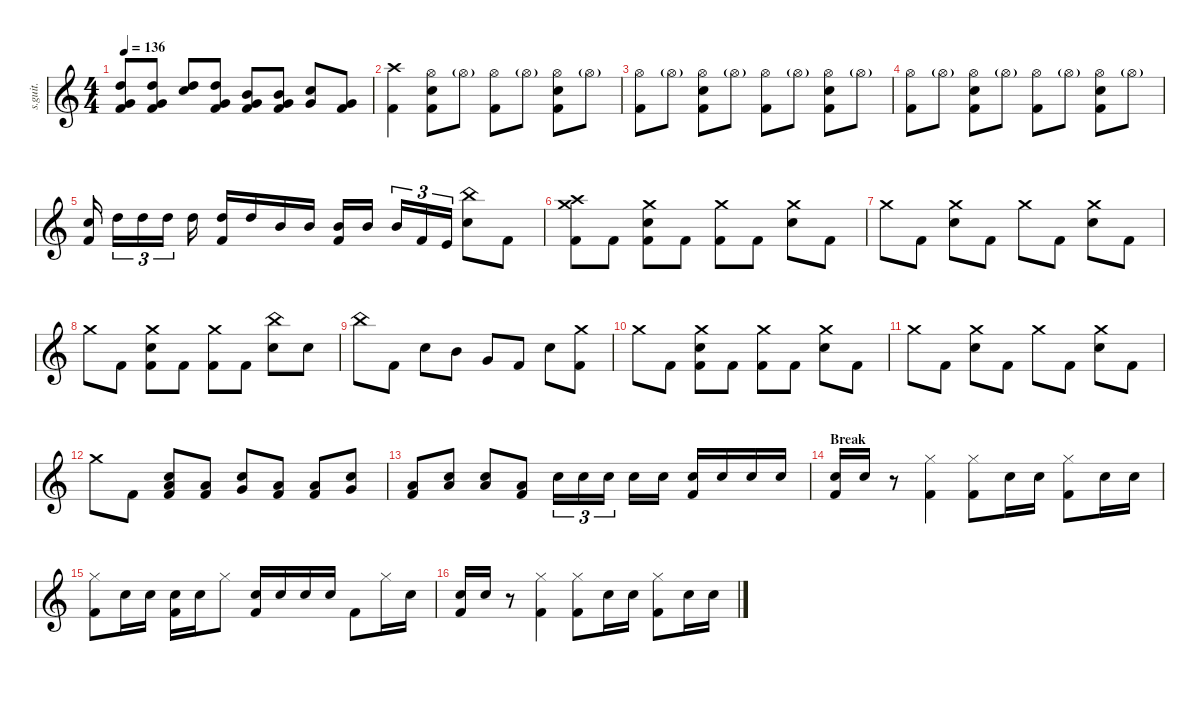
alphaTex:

\defaultSystemsLayout 4
\hideDynamics
\bracketExtendMode nobrackets
\track ("Joey Jordison" "s.guit.") {instrument percussion}
\staff {score}
\articulation defaults
\ts (4 4)
\tempo 136
\clef g2
\ks c
("Kick (hit) 2" "High Tom (hit)" "Very Low Tom (hit)").8{lyrics (0 "") lyrics (1 "") lyrics (2 "") lyrics (3 "") lyrics (4 "") dy fff} ("Kick (hit) 2" "High Tom (hit)" "Very Low Tom (hit)").8{lyrics (0 "") lyrics (1 "") lyrics (2 "") lyrics (3 "") lyrics (4 "")} ("Snare (hit) 2" "High Tom (hit)").8{lyrics (0 "") lyrics (1 "") lyrics (2 "") lyrics (3 "") lyrics (4 "")} ("Kick (hit) 2" "High Tom (hit)" "Very Low Tom (hit)").8{lyrics (0 "") lyrics (1 "") lyrics (2 "") lyrics (3 "") lyrics (4 "")} ("Kick (hit) 2" "Mid Tom (hit)" "Very Low Tom (hit)").8{lyrics (0 "") lyrics (1 "") lyrics (2 "") lyrics (3 "") lyrics (4 "")} ("Kick (hit) 2" "Mid Tom (hit)" "Very Low Tom (hit)").8{lyrics (0 "") lyrics (1 "") lyrics (2 "") lyrics (3 "") lyrics (4 "")} ("Snare (hit) 2" "Very Low Tom (hit)").8{lyrics (0 "") lyrics (1 "") lyrics (2 "") lyrics (3 "") lyrics (4 "")} ("Kick (hit) 2" "Very Low Tom (hit)").8{lyrics (0 "") lyrics (1 "") lyrics (2 "") lyrics (3 "") lyrics (4 "")} |
("Crash high (hit)" "Kick (hit) 2").4{lyrics (0 "") lyrics (1 "") lyrics (2 "") lyrics (3 "") lyrics (4 "")} ("Hi-Hat (open)" "Kick (hit) 2" "Snare (hit) 2").8{lyrics (0 "") lyrics (1 "") lyrics (2 "") lyrics (3 "") lyrics (4 "")} "Hi-Hat (open)"{g}.8{lyrics (0 "") lyrics (1 "") lyrics (2 "") lyrics (3 "") lyrics (4 "")} ("Hi-Hat (open)" "Kick (hit) 2").8{lyrics (0 "") lyrics (1 "") lyrics (2 "") lyrics (3 "") lyrics (4 "")} "Hi-Hat (open)"{g}.8{lyrics (0 "") lyrics (1 "") lyrics (2 "") lyrics (3 "") lyrics (4 "")} ("Hi-Hat (open)" "Kick (hit) 2" "Snare (hit) 2").8{lyrics (0 "") lyrics (1 "") lyrics (2 "") lyrics (3 "") lyrics (4 "")} "Hi-Hat (open)"{g}.8{lyrics (0 "") lyrics (1 "") lyrics (2 "") lyrics (3 "") lyrics (4 "")} |
("Hi-Hat (open)" "Kick (hit) 2").8{lyrics (0 "") lyrics (1 "") lyrics (2 "") lyrics (3 "") lyrics (4 "")} "Hi-Hat (open)"{g}.8{lyrics (0 "") lyrics (1 "") lyrics (2 "") lyrics (3 "") lyrics (4 "")} ("Hi-Hat (open)" "Kick (hit) 2" "Snare (hit) 2").8{lyrics (0 "") lyrics (1 "") lyrics (2 "") lyrics (3 "") lyrics (4 "")} "Hi-Hat (open)"{g}.8{lyrics (0 "") lyrics (1 "") lyrics (2 "") lyrics (3 "") lyrics (4 "")} ("Hi-Hat (open)" "Kick (hit) 2").8{lyrics (0 "") lyrics (1 "") lyrics (2 "") lyrics (3 "") lyrics (4 "")} "Hi-Hat (open)"{g}.8{lyrics (0 "") lyrics (1 "") lyrics (2 "") lyrics (3 "") lyrics (4 "")} ("Hi-Hat (open)" "Kick (hit) 2" "Snare (hit) 2").8{lyrics (0 "") lyrics (1 "") lyrics (2 "") lyrics (3 "") lyrics (4 "")} "Hi-Hat (open)"{g}.8{lyrics (0 "") lyrics (1 "") lyrics (2 "") lyrics (3 "") lyrics (4 "")} |
("Hi-Hat (open)" "Kick (hit) 2").8{lyrics (0 "") lyrics (1 "") lyrics (2 "") lyrics (3 "") lyrics (4 "")} "Hi-Hat (open)"{g}.8{lyrics (0 "") lyrics (1 "") lyrics (2 "") lyrics (3 "") lyrics (4 "")} ("Hi-Hat (open)" "Kick (hit) 2" "Snare (hit) 2").8{lyrics (0 "") lyrics (1 "") lyrics (2 "") lyrics (3 "") lyrics (4 "")} "Hi-Hat (open)"{g}.8{lyrics (0 "") lyrics (1 "") lyrics (2 "") lyrics (3 "") lyrics (4 "")} ("Hi-Hat (open)" "Kick (hit) 2").8{lyrics (0 "") lyrics (1 "") lyrics (2 "") lyrics (3 "") lyrics (4 "")} "Hi-Hat (open)"{g}.8{lyrics (0 "") lyrics (1 "") lyrics (2 "") lyrics (3 "") lyrics (4 "")} ("Hi-Hat (open)" "Kick (hit) 2" "Snare (hit) 2").8{lyrics (0 "") lyrics (1 "") lyrics (2 "") lyrics (3 "") lyrics (4 "")} "Hi-Hat (open)"{g}.8{lyrics (0 "") lyrics (1 "") lyrics (2 "") lyrics (3 "") lyrics (4 "")} |
("Snare (hit) 2" "Kick (hit) 2").16{lyrics (0 "") lyrics (1 "") lyrics (2 "") lyrics (3 "") lyrics (4 "")} "High Tom (hit)".16{tu (3 2) lyrics (0 "") lyrics (1 "") lyrics (2 "") lyrics (3 "") lyrics (4 "")} "High Tom (hit)".16{tu (3 2) lyrics (0 "") lyrics (1 "") lyrics (2 "") lyrics (3 "") lyrics (4 "")} "High Tom (hit)".16{tu (3 2) lyrics (0 "") lyrics (1 "") lyrics (2 "") lyrics (3 "") lyrics (4 "")} "High Tom (hit)".16{lyrics (0 "") lyrics (1 "") lyrics (2 "") lyrics (3 "") lyrics (4 "")} ("Kick (hit) 2" "High Tom (hit)").16{lyrics (0 "") lyrics (1 "") lyrics (2 "") lyrics (3 "") lyrics (4 "")} "High Tom (hit)".16{lyrics (0 "") lyrics (1 "") lyrics (2 "") lyrics (3 "") lyrics (4 "")} "Mid Tom (hit)".16{lyrics (0 "") lyrics (1 "") lyrics (2 "") lyrics (3 "") lyrics (4 "")} "Mid Tom (hit)".16{lyrics (0 "") lyrics (1 "") lyrics (2 "") lyrics (3 "") lyrics (4 "")} ("Kick (hit) 2" "Mid Tom (hit)").16{lyrics (0 "") lyrics (1 "") lyrics (2 "") lyrics (3 "") lyrics (4 "")} "Mid Tom (hit)".16{lyrics (0 "") lyrics (1 "") lyrics (2 "") lyrics (3 "") lyrics (4 "")} "Mid Tom (hit)".16{tu (3 2) lyrics (0 "") lyrics (1 "") lyrics (2 "") lyrics (3 "") lyrics (4 "")} "Kick (hit) 2".16{tu (3 2) lyrics (0 "") lyrics (1 "") lyrics (2 "") lyrics (3 "") lyrics (4 "")} "Kick (hit)".16{tu (3 2) lyrics (0 "") lyrics (1 "") lyrics (2 "") lyrics (3 "") lyrics (4 "")} ("Snare (hit) 2" "China (hit)").8{lyrics (0 "") lyrics (1 "") lyrics (2 "") lyrics (3 "") lyrics (4 "")} "Kick (hit) 2".8{lyrics (0 "") lyrics (1 "") lyrics (2 "") lyrics (3 "") lyrics (4 "")} |
("Kick (hit) 2" "Crash high (hit)" "Crash medium (hit)").8{lyrics (0 "") lyrics (1 "") lyrics (2 "") lyrics (3 "") lyrics (4 "")} "Kick (hit) 2".8{lyrics (0 "") lyrics (1 "") lyrics (2 "") lyrics (3 "") lyrics (4 "")} ("Snare (hit) 2" "Kick (hit) 2" "Crash medium (hit)").8{lyrics (0 "") lyrics (1 "") lyrics (2 "") lyrics (3 "") lyrics (4 "")} "Kick (hit) 2".8{lyrics (0 "") lyrics (1 "") lyrics (2 "") lyrics (3 "") lyrics (4 "")} ("Kick (hit) 2" "Crash medium (hit)").8{lyrics (0 "") lyrics (1 "") lyrics (2 "") lyrics (3 "") lyrics (4 "")} "Kick (hit) 2".8{lyrics (0 "") lyrics (1 "") lyrics (2 "") lyrics (3 "") lyrics (4 "")} ("Snare (hit) 2" "Crash medium (hit)").8{lyrics (0 "") lyrics (1 "") lyrics (2 "") lyrics (3 "") lyrics (4 "")} "Kick (hit) 2".8{lyrics (0 "") lyrics (1 "") lyrics (2 "") lyrics (3 "") lyrics (4 "")} |
"Crash medium (hit)".8{lyrics (0 "") lyrics (1 "") lyrics (2 "") lyrics (3 "") lyrics (4 "")} "Kick (hit) 2".8{lyrics (0 "") lyrics (1 "") lyrics (2 "") lyrics (3 "") lyrics (4 "")} ("Snare (hit) 2" "Crash medium (hit)").8{lyrics (0 "") lyrics (1 "") lyrics (2 "") lyrics (3 "") lyrics (4 "")} "Kick (hit) 2".8{lyrics (0 "") lyrics (1 "") lyrics (2 "") lyrics (3 "") lyrics (4 "")} "Crash medium (hit)".8{lyrics (0 "") lyrics (1 "") lyrics (2 "") lyrics (3 "") lyrics (4 "")} "Kick (hit) 2".8{lyrics (0 "") lyrics (1 "") lyrics (2 "") lyrics (3 "") lyrics (4 "")} ("Snare (hit) 2" "Crash medium (hit)").8{lyrics (0 "") lyrics (1 "") lyrics (2 "") lyrics (3 "") lyrics (4 "")} "Kick (hit) 2".8{lyrics (0 "") lyrics (1 "") lyrics (2 "") lyrics (3 "") lyrics (4 "")} |
"Crash medium (hit)".8{lyrics (0 "") lyrics (1 "") lyrics (2 "") lyrics (3 "") lyrics (4 "")} "Kick (hit) 2".8{lyrics (0 "") lyrics (1 "") lyrics (2 "") lyrics (3 "") lyrics (4 "")} ("Snare (hit) 2" "Kick (hit) 2" "Crash medium (hit)").8{lyrics (0 "") lyrics (1 "") lyrics (2 "") lyrics (3 "") lyrics (4 "")} "Kick (hit) 2".8{lyrics (0 "") lyrics (1 "") lyrics (2 "") lyrics (3 "") lyrics (4 "")} ("Kick (hit) 2" "Crash medium (hit)").8{lyrics (0 "") lyrics (1 "") lyrics (2 "") lyrics (3 "") lyrics (4 "")} "Kick (hit) 2".8{lyrics (0 "") lyrics (1 "") lyrics (2 "") lyrics (3 "") lyrics (4 "")} ("Snare (hit) 2" "China (hit)").8{lyrics (0 "") lyrics (1 "") lyrics (2 "") lyrics (3 "") lyrics (4 "")} "Snare (hit) 2".8{lyrics (0 "") lyrics (1 "") lyrics (2 "") lyrics (3 "") lyrics (4 "")} |
"China (hit)".8{lyrics (0 "") lyrics (1 "") lyrics (2 "") lyrics (3 "") lyrics (4 "")} "Kick (hit) 2".8{lyrics (0 "") lyrics (1 "") lyrics (2 "") lyrics (3 "") lyrics (4 "")} "Snare (hit) 2".8{lyrics (0 "") lyrics (1 "") lyrics (2 "") lyrics (3 "") lyrics (4 "")} "Mid Tom (hit)".8{lyrics (0 "") lyrics (1 "") lyrics (2 "") lyrics (3 "") lyrics (4 "")} "Very Low Tom (hit)".8{lyrics (0 "") lyrics (1 "") lyrics (2 "") lyrics (3 "") lyrics (4 "")} "Kick (hit) 2".8{lyrics (0 "") lyrics (1 "") lyrics (2 "") lyrics (3 "") lyrics (4 "")} "Snare (hit) 2".8{lyrics (0 "") lyrics (1 "") lyrics (2 "") lyrics (3 "") lyrics (4 "")} ("Kick (hit) 2" "Crash medium (hit)").8{lyrics (0 "") lyrics (1 "") lyrics (2 "") lyrics (3 "") lyrics (4 "")} |
"Crash medium (hit)".8{lyrics (0 "") lyrics (1 "") lyrics (2 "") lyrics (3 "") lyrics (4 "")} "Kick (hit) 2".8{lyrics (0 "") lyrics (1 "") lyrics (2 "") lyrics (3 "") lyrics (4 "")} ("Snare (hit) 2" "Kick (hit) 2" "Crash medium (hit)").8{lyrics (0 "") lyrics (1 "") lyrics (2 "") lyrics (3 "") lyrics (4 "")} "Kick (hit) 2".8{lyrics (0 "") lyrics (1 "") lyrics (2 "") lyrics (3 "") lyrics (4 "")} ("Kick (hit) 2" "Crash medium (hit)").8{lyrics (0 "") lyrics (1 "") lyrics (2 "") lyrics (3 "") lyrics (4 "")} "Kick (hit) 2".8{lyrics (0 "") lyrics (1 "") lyrics (2 "") lyrics (3 "") lyrics (4 "")} ("Snare (hit) 2" "Crash medium (hit)").8{lyrics (0 "") lyrics (1 "") lyrics (2 "") lyrics (3 "") lyrics (4 "")} "Kick (hit) 2".8{lyrics (0 "") lyrics (1 "") lyrics (2 "") lyrics (3 "") lyrics (4 "")} |
"Crash medium (hit)".8{lyrics (0 "") lyrics (1 "") lyrics (2 "") lyrics (3 "") lyrics (4 "")} "Kick (hit) 2".8{lyrics (0 "") lyrics (1 "") lyrics (2 "") lyrics (3 "") lyrics (4 "")} ("Snare (hit) 2" "Crash medium (hit)").8{lyrics (0 "") lyrics (1 "") lyrics (2 "") lyrics (3 "") lyrics (4 "")} "Kick (hit) 2".8{lyrics (0 "") lyrics (1 "") lyrics (2 "") lyrics (3 "") lyrics (4 "")} "Crash medium (hit)".8{lyrics (0 "") lyrics (1 "") lyrics (2 "") lyrics (3 "") lyrics (4 "")} "Kick (hit) 2".8{lyrics (0 "") lyrics (1 "") lyrics (2 "") lyrics (3 "") lyrics (4 "")} ("Snare (hit) 2" "Crash medium (hit)").8{lyrics (0 "") lyrics (1 "") lyrics (2 "") lyrics (3 "") lyrics (4 "")} "Kick (hit) 2".8{lyrics (0 "") lyrics (1 "") lyrics (2 "") lyrics (3 "") lyrics (4 "")} |
"Crash medium (hit)".8{lyrics (0 "") lyrics (1 "") lyrics (2 "") lyrics (3 "") lyrics (4 "")} "Kick (hit) 2".8{lyrics (0 "") lyrics (1 "") lyrics (2 "") lyrics (3 "") lyrics (4 "")} ("Snare (hit) 2" "Kick (hit) 2" "Low Tom (hit)").8{lyrics (0 "") lyrics (1 "") lyrics (2 "") lyrics (3 "") lyrics (4 "")} ("Kick (hit) 2" "Low Tom (hit)").8{lyrics (0 "") lyrics (1 "") lyrics (2 "") lyrics (3 "") lyrics (4 "")} ("Very Low Tom (hit)" "Snare (hit) 2").8{lyrics (0 "") lyrics (1 "") lyrics (2 "") lyrics (3 "") lyrics (4 "")} ("Kick (hit) 2" "Low Tom (hit)").8{lyrics (0 "") lyrics (1 "") lyrics (2 "") lyrics (3 "") lyrics (4 "")} ("Kick (hit) 2" "Low Tom (hit)").8{lyrics (0 "") lyrics (1 "") lyrics (2 "") lyrics (3 "") lyrics (4 "")} ("Very Low Tom (hit)" "Snare (hit) 2").8{lyrics (0 "") lyrics (1 "") lyrics (2 "") lyrics (3 "") lyrics (4 "")} |
("Kick (hit) 2" "Low Tom (hit)").8{lyrics (0 "") lyrics (1 "") lyrics (2 "") lyrics (3 "") lyrics (4 "")} ("Snare (hit) 2" "Low Tom (hit)").8{lyrics (0 "") lyrics (1 "") lyrics (2 "") lyrics (3 "") lyrics (4 "")} ("Snare (hit) 2" "Low Tom (hit)").8{lyrics (0 "") lyrics (1 "") lyrics (2 "") lyrics (3 "") lyrics (4 "")} ("Kick (hit) 2" "Low Tom (hit)").8{lyrics (0 "") lyrics (1 "") lyrics (2 "") lyrics (3 "") lyrics (4 "")} "Snare (hit) 2".16{tu (3 2) lyrics (0 "") lyrics (1 "") lyrics (2 "") lyrics (3 "") lyrics (4 "")} "Snare (hit) 2".16{tu (3 2) lyrics (0 "") lyrics (1 "") lyrics (2 "") lyrics (3 "") lyrics (4 "")} "Snare (hit) 2".16{tu (3 2) lyrics (0 "") lyrics (1 "") lyrics (2 "") lyrics (3 "") lyrics (4 "")} "Snare (hit) 2".16{lyrics (0 "") lyrics (1 "") lyrics (2 "") lyrics (3 "") lyrics (4 "")} "Snare (hit) 2".16{lyrics (0 "") lyrics (1 "") lyrics (2 "") lyrics (3 "") lyrics (4 "")} ("Snare (hit) 2" "Kick (hit) 2").16{lyrics (0 "") lyrics (1 "") lyrics (2 "") lyrics (3 "") lyrics (4 "")} "Snare (hit) 2".16{lyrics (0 "") lyrics (1 "") lyrics (2 "") lyrics (3 "") lyrics (4 "")} "Snare (hit) 2".16{lyrics (0 "") lyrics (1 "") lyrics (2 "") lyrics (3 "") lyrics (4 "")} "Snare (hit) 2".16{lyrics (0 "") lyrics (1 "") lyrics (2 "") lyrics (3 "") lyrics (4 "")} |
\section ("" "Break")
("Snare (hit) 2" "Kick (hit) 2").16{lyrics (0 "") lyrics (1 "") lyrics (2 "") lyrics (3 "") lyrics (4 "")} "Snare (hit) 2".16{lyrics (0 "") lyrics (1 "") lyrics (2 "") lyrics (3 "") lyrics (4 "")} r.8 ("Hi-Hat (closed)" "Kick (hit) 2").4{lyrics (0 "") lyrics (1 "") lyrics (2 "") lyrics (3 "") lyrics (4 "")} ("Kick (hit) 2" "Hi-Hat (closed)").8{lyrics (0 "") lyrics (1 "") lyrics (2 "") lyrics (3 "") lyrics (4 "")} "Snare (hit) 2".16{lyrics (0 "") lyrics (1 "") lyrics (2 "") lyrics (3 "") lyrics (4 "")} "Snare (hit) 2".16{lyrics (0 "") lyrics (1 "") lyrics (2 "") lyrics (3 "") lyrics (4 "")} ("Kick (hit) 2" "Hi-Hat (closed)").8{lyrics (0 "") lyrics (1 "") lyrics (2 "") lyrics (3 "") lyrics (4 "")} "Snare (hit) 2".16{lyrics (0 "") lyrics (1 "") lyrics (2 "") lyrics (3 "") lyrics (4 "")} "Snare (hit) 2".16{lyrics (0 "") lyrics (1 "") lyrics (2 "") lyrics (3 "") lyrics (4 "")} |
("Kick (hit) 2" "Hi-Hat (closed)").8{lyrics (0 "") lyrics (1 "") lyrics (2 "") lyrics (3 "") lyrics (4 "")} "Snare (hit) 2".16{lyrics (0 "") lyrics (1 "") lyrics (2 "") lyrics (3 "") lyrics (4 "")} "Snare (hit) 2".16{lyrics (0 "") lyrics (1 "") lyrics (2 "") lyrics (3 "") lyrics (4 "")} ("Snare (hit) 2" "Kick (hit) 2").16{lyrics (0 "") lyrics (1 "") lyrics (2 "") lyrics (3 "") lyrics (4 "")} "Snare (hit) 2".16{lyrics (0 "") lyrics (1 "") lyrics (2 "") lyrics (3 "") lyrics (4 "")} "Hi-Hat (closed)".8{lyrics (0 "") lyrics (1 "") lyrics (2 "") lyrics (3 "") lyrics (4 "")} ("Snare (hit) 2" "Kick (hit) 2").16{lyrics (0 "") lyrics (1 "") lyrics (2 "") lyrics (3 "") lyrics (4 "")} "Snare (hit) 2".16{lyrics (0 "") lyrics (1 "") lyrics (2 "") lyrics (3 "") lyrics (4 "")} "Snare (hit) 2".16{lyrics (0 "") lyrics (1 "") lyrics (2 "") lyrics (3 "") lyrics (4 "")} "Snare (hit) 2".16{lyrics (0 "") lyrics (1 "") lyrics (2 "") lyrics (3 "") lyrics (4 "")} "Kick (hit) 2".8{lyrics (0 "") lyrics (1 "") lyrics (2 "") lyrics (3 "") lyrics (4 "")} "Hi-Hat (closed)".16{lyrics (0 "") lyrics (1 "") lyrics (2 "") lyrics (3 "") lyrics (4 "")} "Snare (hit) 2".16{lyrics (0 "") lyrics (1 "") lyrics (2 "") lyrics (3 "") lyrics (4 "")} |
("Snare (hit) 2" "Kick (hit) 2").16{lyrics (0 "") lyrics (1 "") lyrics (2 "") lyrics (3 "") lyrics (4 "")} "Snare (hit) 2".16{lyrics (0 "") lyrics (1 "") lyrics (2 "") lyrics (3 "") lyrics (4 "")} r.8 ("Hi-Hat (closed)" "Kick (hit) 2").4{lyrics (0 "") lyrics (1 "") lyrics (2 "") lyrics (3 "") lyrics (4 "")} ("Kick (hit) 2" "Hi-Hat (closed)").8{lyrics (0 "") lyrics (1 "") lyrics (2 "") lyrics (3 "") lyrics (4 "")} "Snare (hit) 2".16{lyrics (0 "") lyrics (1 "") lyrics (2 "") lyrics (3 "") lyrics (4 "")} "Snare (hit) 2".16{lyrics (0 "") lyrics (1 "") lyrics (2 "") lyrics (3 "") lyrics (4 "")} ("Kick (hit) 2" "Hi-Hat (closed)").8{lyrics (0 "") lyrics (1 "") lyrics (2 "") lyrics (3 "") lyrics (4 "")} "Snare (hit) 2".16{lyrics (0 "") lyrics (1 "") lyrics (2 "") lyrics (3 "") lyrics (4 "")} "Snare (hit) 2".16{lyrics (0 "") lyrics (1 "") lyrics (2 "") lyrics (3 "") lyrics (4 "")}
